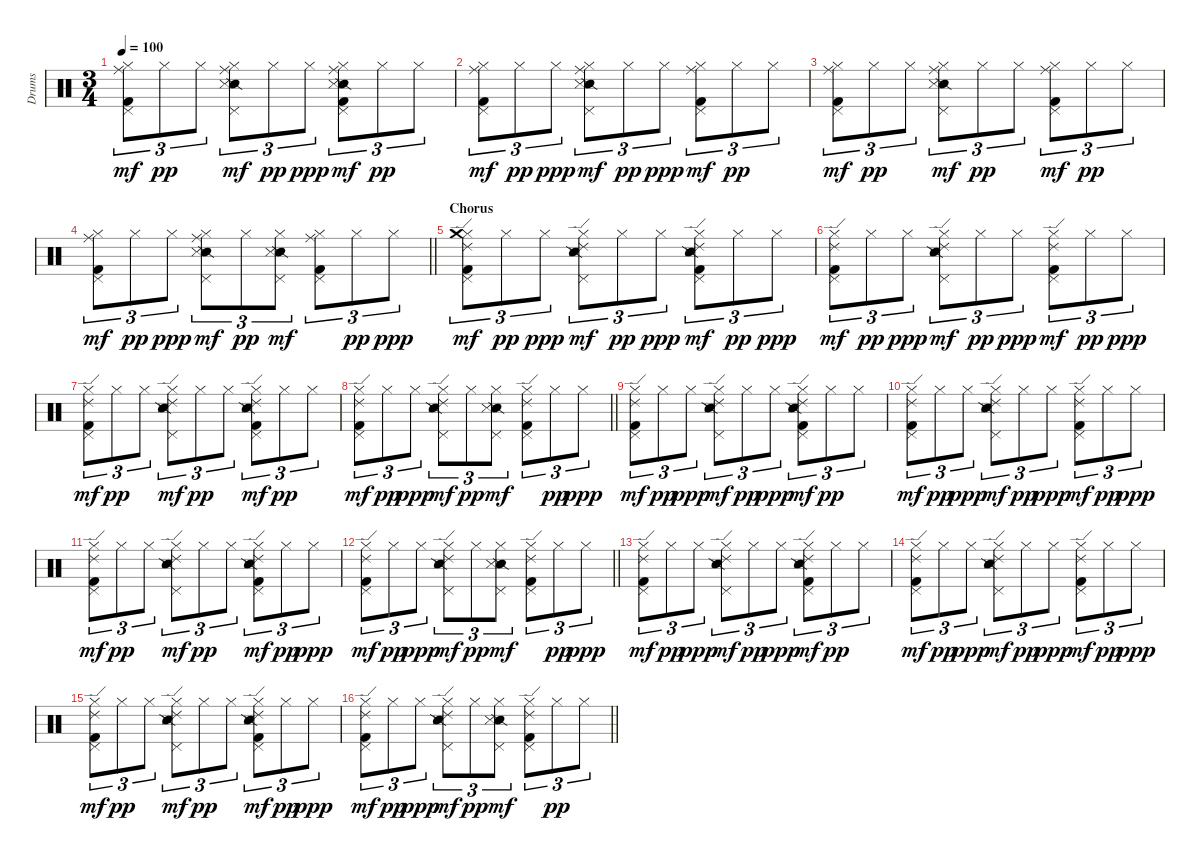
\track ("Drums" "Drums") {instrument percussion}
\staff {score}
\articulation defaults
\ts (3 4)
\tempo 100
\clef neutral
\ks c
("Hi-Hat (closed)" "Ride (middle)" "Pedal Hi-Hat (hit)" "Kick (hit) 2").8{tu (3 2) dy mf} "Hi-Hat (closed)".8{tu (3 2) dy pp} "Hi-Hat (closed)".8{tu (3 2)} ("Hi-Hat (closed)" "Ride (middle)" "Pedal Hi-Hat (hit)" "Snare (side stick) 2" "Snare (side stick) 3").8{tu (3 2) dy mf} "Hi-Hat (closed)".8{tu (3 2) dy pp} "Hi-Hat (closed)".8{tu (3 2) dy ppp} ("Hi-Hat (closed)" "Ride (middle)" "Pedal Hi-Hat (hit)" "Snare (side stick) 2" "Snare (side stick) 3" "Kick (hit) 2").8{tu (3 2) dy mf} "Hi-Hat (closed)".8{tu (3 2) dy pp} "Hi-Hat (closed)".8{tu (3 2)} |
("Hi-Hat (closed)" "Ride (middle)" "Pedal Hi-Hat (hit)" "Kick (hit) 2").8{tu (3 2) dy mf} "Hi-Hat (closed)".8{tu (3 2) dy pp} "Hi-Hat (closed)".8{tu (3 2) dy ppp} ("Hi-Hat (closed)" "Ride (middle)" "Pedal Hi-Hat (hit)" "Snare (side stick) 2" "Snare (side stick) 3").8{tu (3 2) dy mf} "Hi-Hat (closed)".8{tu (3 2) dy pp} "Hi-Hat (closed)".8{tu (3 2) dy ppp} ("Hi-Hat (closed)" "Ride (middle)" "Pedal Hi-Hat (hit)" "Kick (hit) 2").8{tu (3 2) dy mf} "Hi-Hat (closed)".8{tu (3 2) dy pp} "Hi-Hat (closed)".8{tu (3 2)} |
("Hi-Hat (closed)" "Ride (middle)" "Pedal Hi-Hat (hit)" "Kick (hit) 2").8{tu (3 2) dy mf} "Hi-Hat (closed)".8{tu (3 2) dy pp} "Hi-Hat (closed)".8{tu (3 2)} ("Hi-Hat (closed)" "Ride (middle)" "Pedal Hi-Hat (hit)" "Snare (side stick) 2" "Snare (side stick) 3").8{tu (3 2) dy mf} "Hi-Hat (closed)".8{tu (3 2) dy pp} "Hi-Hat (closed)".8{tu (3 2)} ("Hi-Hat (closed)" "Ride (middle)" "Pedal Hi-Hat (hit)" "Kick (hit) 2").8{tu (3 2) dy mf} "Hi-Hat (closed)".8{tu (3 2) dy pp} "Hi-Hat (closed)".8{tu (3 2)} |
\barLineRight lightlight
("Hi-Hat (closed)" "Ride (middle)" "Pedal Hi-Hat (hit)" "Kick (hit) 2").8{tu (3 2) dy mf} "Hi-Hat (closed)".8{tu (3 2) dy pp} "Hi-Hat (closed)".8{tu (3 2) dy ppp} ("Hi-Hat (closed)" "Ride (middle)" "Pedal Hi-Hat (hit)" "Snare (side stick) 2" "Snare (side stick) 3").8{tu (3 2) dy mf} "Hi-Hat (closed)".8{tu (3 2) dy pp} ("Hi-Hat (closed)" "Pedal Hi-Hat (hit)" "Snare (side stick) 2" "Snare (side stick) 3").8{tu (3 2) dy mf} ("Hi-Hat (closed)" "Ride (middle)" "Pedal Hi-Hat (hit)" "Kick (hit) 2").8{tu (3 2)} "Hi-Hat (closed)".8{tu (3 2) dy pp} "Hi-Hat (closed)".8{tu (3 2) dy ppp} |
\section ("" "Chorus")
("Hi-Hat (closed)" "Ride (edge) 2" "Pedal Hi-Hat (hit)" "Crash medium (hit)" "Kick (hit) 2").8{tu (3 2) dy mf} "Hi-Hat (closed)".8{tu (3 2) dy pp} "Hi-Hat (closed)".8{tu (3 2) dy ppp} ("Hi-Hat (closed)" "Ride (edge) 2" "Pedal Hi-Hat (hit)" "Snare (side stick) 2" "Snare (side stick) 3").8{tu (3 2) dy mf} "Hi-Hat (closed)".8{tu (3 2) dy pp} "Hi-Hat (closed)".8{tu (3 2) dy ppp} ("Hi-Hat (closed)" "Ride (edge) 2" "Pedal Hi-Hat (hit)" "Snare (side stick) 2" "Snare (side stick) 3" "Kick (hit) 2").8{tu (3 2) dy mf} "Hi-Hat (closed)".8{tu (3 2) dy pp} "Hi-Hat (closed)".8{tu (3 2) dy ppp} |
("Hi-Hat (closed)" "Ride (edge) 2" "Pedal Hi-Hat (hit)" "Kick (hit) 2").8{tu (3 2) dy mf} "Hi-Hat (closed)".8{tu (3 2) dy pp} "Hi-Hat (closed)".8{tu (3 2) dy ppp} ("Hi-Hat (closed)" "Ride (edge) 2" "Pedal Hi-Hat (hit)" "Snare (side stick) 2" "Snare (side stick) 3").8{tu (3 2) dy mf} "Hi-Hat (closed)".8{tu (3 2) dy pp} "Hi-Hat (closed)".8{tu (3 2) dy ppp} ("Hi-Hat (closed)" "Ride (edge) 2" "Pedal Hi-Hat (hit)" "Kick (hit) 2").8{tu (3 2) dy mf} "Hi-Hat (closed)".8{tu (3 2) dy pp} "Hi-Hat (closed)".8{tu (3 2) dy ppp} |
("Hi-Hat (closed)" "Ride (edge) 2" "Pedal Hi-Hat (hit)" "Kick (hit) 2").8{tu (3 2) dy mf} "Hi-Hat (closed)".8{tu (3 2) dy pp} "Hi-Hat (closed)".8{tu (3 2)} ("Hi-Hat (closed)" "Ride (edge) 2" "Pedal Hi-Hat (hit)" "Snare (side stick) 2" "Snare (side stick) 3").8{tu (3 2) dy mf} "Hi-Hat (closed)".8{tu (3 2) dy pp} "Hi-Hat (closed)".8{tu (3 2)} ("Hi-Hat (closed)" "Ride (edge) 2" "Pedal Hi-Hat (hit)" "Snare (side stick) 2" "Snare (side stick) 3" "Kick (hit) 2").8{tu (3 2) dy mf} "Hi-Hat (closed)".8{tu (3 2) dy pp} "Hi-Hat (closed)".8{tu (3 2)} |
\barLineRight lightlight
("Hi-Hat (closed)" "Ride (edge) 2" "Pedal Hi-Hat (hit)" "Kick (hit) 2").8{tu (3 2) dy mf} "Hi-Hat (closed)".8{tu (3 2) dy pp} "Hi-Hat (closed)".8{tu (3 2) dy ppp} ("Hi-Hat (closed)" "Ride (edge) 2" "Pedal Hi-Hat (hit)" "Snare (side stick) 2" "Snare (side stick) 3").8{tu (3 2) dy mf} "Hi-Hat (closed)".8{tu (3 2) dy pp} ("Hi-Hat (closed)" "Pedal Hi-Hat (hit)" "Snare (side stick) 2" "Snare (side stick) 3").8{tu (3 2) dy mf} ("Hi-Hat (closed)" "Ride (edge) 2" "Pedal Hi-Hat (hit)" "Kick (hit) 2").8{tu (3 2)} "Hi-Hat (closed)".8{tu (3 2) dy pp} "Hi-Hat (closed)".8{tu (3 2) dy ppp} |
("Hi-Hat (closed)" "Ride (edge) 2" "Pedal Hi-Hat (hit)" "Kick (hit) 2").8{tu (3 2) dy mf} "Hi-Hat (closed)".8{tu (3 2) dy pp} "Hi-Hat (closed)".8{tu (3 2) dy ppp} ("Hi-Hat (closed)" "Ride (edge) 2" "Pedal Hi-Hat (hit)" "Snare (side stick) 2" "Snare (side stick) 3").8{tu (3 2) dy mf} "Hi-Hat (closed)".8{tu (3 2) dy pp} "Hi-Hat (closed)".8{tu (3 2) dy ppp} ("Hi-Hat (closed)" "Ride (edge) 2" "Pedal Hi-Hat (hit)" "Snare (side stick) 2" "Snare (side stick) 3" "Kick (hit) 2").8{tu (3 2) dy mf} "Hi-Hat (closed)".8{tu (3 2) dy pp} "Hi-Hat (closed)".8{tu (3 2)} |
("Hi-Hat (closed)" "Ride (edge) 2" "Pedal Hi-Hat (hit)" "Kick (hit) 2").8{tu (3 2) dy mf} "Hi-Hat (closed)".8{tu (3 2) dy pp} "Hi-Hat (closed)".8{tu (3 2) dy ppp} ("Hi-Hat (closed)" "Ride (edge) 2" "Pedal Hi-Hat (hit)" "Snare (side stick) 2" "Snare (side stick) 3").8{tu (3 2) dy mf} "Hi-Hat (closed)".8{tu (3 2) dy pp} "Hi-Hat (closed)".8{tu (3 2) dy ppp} ("Hi-Hat (closed)" "Ride (edge) 2" "Pedal Hi-Hat (hit)" "Kick (hit) 2").8{tu (3 2) dy mf} "Hi-Hat (closed)".8{tu (3 2) dy pp} "Hi-Hat (closed)".8{tu (3 2) dy ppp} |
("Hi-Hat (closed)" "Ride (edge) 2" "Pedal Hi-Hat (hit)" "Kick (hit) 2").8{tu (3 2) dy mf} "Hi-Hat (closed)".8{tu (3 2) dy pp} "Hi-Hat (closed)".8{tu (3 2)} ("Hi-Hat (closed)" "Ride (edge) 2" "Pedal Hi-Hat (hit)" "Snare (side stick) 2" "Snare (side stick) 3").8{tu (3 2) dy mf} "Hi-Hat (closed)".8{tu (3 2) dy pp} "Hi-Hat (closed)".8{tu (3 2)} ("Hi-Hat (closed)" "Ride (edge) 2" "Pedal Hi-Hat (hit)" "Snare (side stick) 2" "Snare (side stick) 3" "Kick (hit) 2").8{tu (3 2) dy mf} "Hi-Hat (closed)".8{tu (3 2) dy pp} "Hi-Hat (closed)".8{tu (3 2) dy ppp} |
\barLineRight lightlight
("Hi-Hat (closed)" "Ride (edge) 2" "Pedal Hi-Hat (hit)" "Kick (hit) 2").8{tu (3 2) dy mf} "Hi-Hat (closed)".8{tu (3 2) dy pp} "Hi-Hat (closed)".8{tu (3 2) dy ppp} ("Hi-Hat (closed)" "Ride (edge) 2" "Pedal Hi-Hat (hit)" "Snare (side stick) 2" "Snare (side stick) 3").8{tu (3 2) dy mf} "Hi-Hat (closed)".8{tu (3 2) dy pp} ("Hi-Hat (closed)" "Pedal Hi-Hat (hit)" "Snare (side stick) 2" "Snare (side stick) 3").8{tu (3 2) dy mf} ("Hi-Hat (closed)" "Ride (edge) 2" "Pedal Hi-Hat (hit)" "Kick (hit) 2").8{tu (3 2)} "Hi-Hat (closed)".8{tu (3 2) dy pp} "Hi-Hat (closed)".8{tu (3 2) dy ppp} |
("Hi-Hat (closed)" "Ride (edge) 2" "Pedal Hi-Hat (hit)" "Kick (hit) 2").8{tu (3 2) dy mf} "Hi-Hat (closed)".8{tu (3 2) dy pp} "Hi-Hat (closed)".8{tu (3 2) dy ppp} ("Hi-Hat (closed)" "Ride (edge) 2" "Pedal Hi-Hat (hit)" "Snare (side stick) 2" "Snare (side stick) 3").8{tu (3 2) dy mf} "Hi-Hat (closed)".8{tu (3 2) dy pp} "Hi-Hat (closed)".8{tu (3 2) dy ppp} ("Hi-Hat (closed)" "Ride (edge) 2" "Pedal Hi-Hat (hit)" "Snare (side stick) 2" "Snare (side stick) 3" "Kick (hit) 2").8{tu (3 2) dy mf} "Hi-Hat (closed)".8{tu (3 2) dy pp} "Hi-Hat (closed)".8{tu (3 2)} |
("Hi-Hat (closed)" "Ride (edge) 2" "Pedal Hi-Hat (hit)" "Kick (hit) 2").8{tu (3 2) dy mf} "Hi-Hat (closed)".8{tu (3 2) dy pp} "Hi-Hat (closed)".8{tu (3 2) dy ppp} ("Hi-Hat (closed)" "Ride (edge) 2" "Pedal Hi-Hat (hit)" "Snare (side stick) 2" "Snare (side stick) 3").8{tu (3 2) dy mf} "Hi-Hat (closed)".8{tu (3 2) dy pp} "Hi-Hat (closed)".8{tu (3 2) dy ppp} ("Hi-Hat (closed)" "Ride (edge) 2" "Pedal Hi-Hat (hit)" "Kick (hit) 2").8{tu (3 2) dy mf} "Hi-Hat (closed)".8{tu (3 2) dy pp} "Hi-Hat (closed)".8{tu (3 2) dy ppp} |
("Hi-Hat (closed)" "Ride (edge) 2" "Pedal Hi-Hat (hit)" "Kick (hit) 2").8{tu (3 2) dy mf} "Hi-Hat (closed)".8{tu (3 2) dy pp} "Hi-Hat (closed)".8{tu (3 2)} ("Hi-Hat (closed)" "Ride (edge) 2" "Pedal Hi-Hat (hit)" "Snare (side stick) 2" "Snare (side stick) 3").8{tu (3 2) dy mf} "Hi-Hat (closed)".8{tu (3 2) dy pp} "Hi-Hat (closed)".8{tu (3 2)} ("Hi-Hat (closed)" "Ride (edge) 2" "Pedal Hi-Hat (hit)" "Snare (side stick) 2" "Snare (side stick) 3" "Kick (hit) 2").8{tu (3 2) dy mf} "Hi-Hat (closed)".8{tu (3 2) dy pp} "Hi-Hat (closed)".8{tu (3 2) dy ppp} |
\barLineRight lightlight
("Hi-Hat (closed)" "Ride (edge) 2" "Pedal Hi-Hat (hit)" "Kick (hit) 2").8{tu (3 2) dy mf} "Hi-Hat (closed)".8{tu (3 2) dy pp} "Hi-Hat (closed)".8{tu (3 2) dy ppp} ("Hi-Hat (closed)" "Ride (edge) 2" "Pedal Hi-Hat (hit)" "Snare (side stick) 2" "Snare (side stick) 3").8{tu (3 2) dy mf} "Hi-Hat (closed)".8{tu (3 2) dy pp} ("Hi-Hat (closed)" "Pedal Hi-Hat (hit)" "Snare (side stick) 2" "Snare (side stick) 3").8{tu (3 2) dy mf} ("Hi-Hat (closed)" "Ride (edge) 2" "Pedal Hi-Hat (hit)" "Kick (hit) 2").8{tu (3 2)} "Hi-Hat (closed)".8{tu (3 2) dy pp} "Hi-Hat (closed)".8{tu (3 2)}
